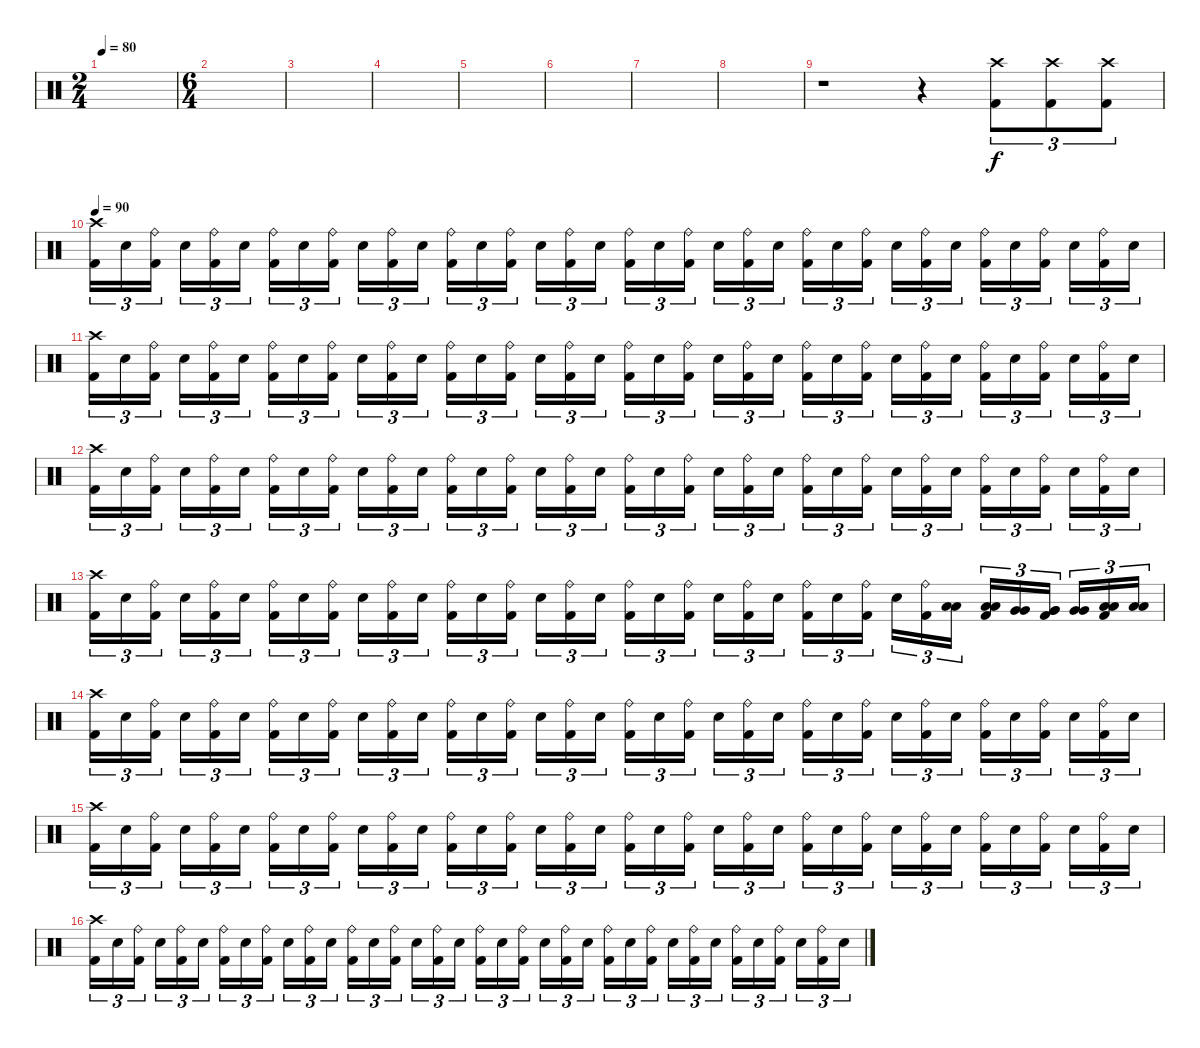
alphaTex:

\track "" {instrument percussion}
\staff {score}
\articulation defaults
\ts (2 4)
\tempo 80
\clef neutral
\ks c
|
\ts (6 4)
|
|
|
|
|
|
|
r.1 r.4 ("Crash high (hit)" "Kick (hit) 2").8{tu (3 2)} ("Crash high (hit)" "Kick (hit) 2").8{tu (3 2)} ("Crash high (hit)" "Kick (hit) 2").8{tu (3 2)} |
\tempo 90
("Crash high (hit)" "Kick (hit) 2").16{tu (3 2)} "Electric Snare (hit)".16{tu (3 2)} ("Ride (bell)" "Kick (hit) 2").16{tu (3 2)} "Electric Snare (hit)".16{tu (3 2)} ("Ride (bell)" "Kick (hit) 2").16{tu (3 2)} "Electric Snare (hit)".16{tu (3 2)} ("Ride (bell)" "Kick (hit) 2").16{tu (3 2)} "Electric Snare (hit)".16{tu (3 2)} ("Ride (bell)" "Kick (hit) 2").16{tu (3 2)} "Electric Snare (hit)".16{tu (3 2)} ("Ride (bell)" "Kick (hit) 2").16{tu (3 2)} "Electric Snare (hit)".16{tu (3 2)} ("Ride (bell)" "Kick (hit) 2").16{tu (3 2)} "Electric Snare (hit)".16{tu (3 2)} ("Ride (bell)" "Kick (hit) 2").16{tu (3 2)} "Electric Snare (hit)".16{tu (3 2)} ("Ride (bell)" "Kick (hit) 2").16{tu (3 2)} "Electric Snare (hit)".16{tu (3 2)} ("Ride (bell)" "Kick (hit) 2").16{tu (3 2)} "Electric Snare (hit)".16{tu (3 2)} ("Ride (bell)" "Kick (hit) 2").16{tu (3 2)} "Electric Snare (hit)".16{tu (3 2)} ("Ride (bell)" "Kick (hit) 2").16{tu (3 2)} "Electric Snare (hit)".16{tu (3 2)} ("Ride (bell)" "Kick (hit) 2").16{tu (3 2)} "Electric Snare (hit)".16{tu (3 2)} ("Ride (bell)" "Kick (hit) 2").16{tu (3 2)} "Electric Snare (hit)".16{tu (3 2)} ("Ride (bell)" "Kick (hit) 2").16{tu (3 2)} "Electric Snare (hit)".16{tu (3 2)} ("Ride (bell)" "Kick (hit) 2").16{tu (3 2)} "Electric Snare (hit)".16{tu (3 2)} ("Ride (bell)" "Kick (hit) 2").16{tu (3 2)} "Electric Snare (hit)".16{tu (3 2)} ("Ride (bell)" "Kick (hit) 2").16{tu (3 2)} "Electric Snare (hit)".16{tu (3 2)} |
("Crash high (hit)" "Kick (hit) 2").16{tu (3 2)} "Electric Snare (hit)".16{tu (3 2)} ("Ride (bell)" "Kick (hit) 2").16{tu (3 2)} "Electric Snare (hit)".16{tu (3 2)} ("Ride (bell)" "Kick (hit) 2").16{tu (3 2)} "Electric Snare (hit)".16{tu (3 2)} ("Ride (bell)" "Kick (hit) 2").16{tu (3 2)} "Electric Snare (hit)".16{tu (3 2)} ("Ride (bell)" "Kick (hit) 2").16{tu (3 2)} "Electric Snare (hit)".16{tu (3 2)} ("Ride (bell)" "Kick (hit) 2").16{tu (3 2)} "Electric Snare (hit)".16{tu (3 2)} ("Ride (bell)" "Kick (hit) 2").16{tu (3 2)} "Electric Snare (hit)".16{tu (3 2)} ("Ride (bell)" "Kick (hit) 2").16{tu (3 2)} "Electric Snare (hit)".16{tu (3 2)} ("Ride (bell)" "Kick (hit) 2").16{tu (3 2)} "Electric Snare (hit)".16{tu (3 2)} ("Ride (bell)" "Kick (hit) 2").16{tu (3 2)} "Electric Snare (hit)".16{tu (3 2)} ("Ride (bell)" "Kick (hit) 2").16{tu (3 2)} "Electric Snare (hit)".16{tu (3 2)} ("Ride (bell)" "Kick (hit) 2").16{tu (3 2)} "Electric Snare (hit)".16{tu (3 2)} ("Ride (bell)" "Kick (hit) 2").16{tu (3 2)} "Electric Snare (hit)".16{tu (3 2)} ("Ride (bell)" "Kick (hit) 2").16{tu (3 2)} "Electric Snare (hit)".16{tu (3 2)} ("Ride (bell)" "Kick (hit) 2").16{tu (3 2)} "Electric Snare (hit)".16{tu (3 2)} ("Ride (bell)" "Kick (hit) 2").16{tu (3 2)} "Electric Snare (hit)".16{tu (3 2)} ("Ride (bell)" "Kick (hit) 2").16{tu (3 2)} "Electric Snare (hit)".16{tu (3 2)} ("Ride (bell)" "Kick (hit) 2").16{tu (3 2)} "Electric Snare (hit)".16{tu (3 2)} |
("Crash high (hit)" "Kick (hit) 2").16{tu (3 2)} "Electric Snare (hit)".16{tu (3 2)} ("Ride (bell)" "Kick (hit) 2").16{tu (3 2)} "Electric Snare (hit)".16{tu (3 2)} ("Ride (bell)" "Kick (hit) 2").16{tu (3 2)} "Electric Snare (hit)".16{tu (3 2)} ("Ride (bell)" "Kick (hit) 2").16{tu (3 2)} "Electric Snare (hit)".16{tu (3 2)} ("Ride (bell)" "Kick (hit) 2").16{tu (3 2)} "Electric Snare (hit)".16{tu (3 2)} ("Ride (bell)" "Kick (hit) 2").16{tu (3 2)} "Electric Snare (hit)".16{tu (3 2)} ("Ride (bell)" "Kick (hit) 2").16{tu (3 2)} "Electric Snare (hit)".16{tu (3 2)} ("Ride (bell)" "Kick (hit) 2").16{tu (3 2)} "Electric Snare (hit)".16{tu (3 2)} ("Ride (bell)" "Kick (hit) 2").16{tu (3 2)} "Electric Snare (hit)".16{tu (3 2)} ("Ride (bell)" "Kick (hit) 2").16{tu (3 2)} "Electric Snare (hit)".16{tu (3 2)} ("Ride (bell)" "Kick (hit) 2").16{tu (3 2)} "Electric Snare (hit)".16{tu (3 2)} ("Ride (bell)" "Kick (hit) 2").16{tu (3 2)} "Electric Snare (hit)".16{tu (3 2)} ("Ride (bell)" "Kick (hit) 2").16{tu (3 2)} "Electric Snare (hit)".16{tu (3 2)} ("Ride (bell)" "Kick (hit) 2").16{tu (3 2)} "Electric Snare (hit)".16{tu (3 2)} ("Ride (bell)" "Kick (hit) 2").16{tu (3 2)} "Electric Snare (hit)".16{tu (3 2)} ("Ride (bell)" "Kick (hit) 2").16{tu (3 2)} "Electric Snare (hit)".16{tu (3 2)} ("Ride (bell)" "Kick (hit) 2").16{tu (3 2)} "Electric Snare (hit)".16{tu (3 2)} ("Ride (bell)" "Kick (hit) 2").16{tu (3 2)} "Electric Snare (hit)".16{tu (3 2)} |
("Crash high (hit)" "Kick (hit) 2").16{tu (3 2)} "Electric Snare (hit)".16{tu (3 2)} ("Ride (bell)" "Kick (hit) 2").16{tu (3 2)} "Electric Snare (hit)".16{tu (3 2)} ("Ride (bell)" "Kick (hit) 2").16{tu (3 2)} "Electric Snare (hit)".16{tu (3 2)} ("Ride (bell)" "Kick (hit) 2").16{tu (3 2)} "Electric Snare (hit)".16{tu (3 2)} ("Ride (bell)" "Kick (hit) 2").16{tu (3 2)} "Electric Snare (hit)".16{tu (3 2)} ("Ride (bell)" "Kick (hit) 2").16{tu (3 2)} "Electric Snare (hit)".16{tu (3 2)} ("Ride (bell)" "Kick (hit) 2").16{tu (3 2)} "Electric Snare (hit)".16{tu (3 2)} ("Ride (bell)" "Kick (hit) 2").16{tu (3 2)} "Electric Snare (hit)".16{tu (3 2)} ("Ride (bell)" "Kick (hit) 2").16{tu (3 2)} "Electric Snare (hit)".16{tu (3 2)} ("Ride (bell)" "Kick (hit) 2").16{tu (3 2)} "Electric Snare (hit)".16{tu (3 2)} ("Ride (bell)" "Kick (hit) 2").16{tu (3 2)} "Electric Snare (hit)".16{tu (3 2)} ("Ride (bell)" "Kick (hit) 2").16{tu (3 2)} "Electric Snare (hit)".16{tu (3 2)} ("Ride (bell)" "Kick (hit) 2").16{tu (3 2)} "Electric Snare (hit)".16{tu (3 2)} ("Ride (bell)" "Kick (hit) 2").16{tu (3 2)} "Electric Snare (hit)".16{tu (3 2)} ("Ride (bell)" "Kick (hit) 2").16{tu (3 2)} ("Low Tom (hit)" "Low Tom (hit)").16{tu (3 2)} ("Low Tom (hit)" "Low Tom (hit)" "Kick (hit) 2").16{tu (3 2)} ("Very Low Tom (hit)" "Very Low Tom (hit)").16{tu (3 2)} ("Very Low Tom (hit)" "Very Low Tom (hit)" "Kick (hit) 2").16{tu (3 2)} ("Very Low Tom (hit)" "Very Low Tom (hit)").16{tu (3 2)} ("Low Floor Tom (hit)" "Low Floor Tom (hit)" "Kick (hit) 2").16{tu (3 2)} ("Low Floor Tom (hit)" "Low Floor Tom (hit)").16{tu (3 2)} |
("Crash high (hit)" "Kick (hit) 2").16{tu (3 2)} "Electric Snare (hit)".16{tu (3 2)} ("Ride (bell)" "Kick (hit) 2").16{tu (3 2)} "Electric Snare (hit)".16{tu (3 2)} ("Ride (bell)" "Kick (hit) 2").16{tu (3 2)} "Electric Snare (hit)".16{tu (3 2)} ("Ride (bell)" "Kick (hit) 2").16{tu (3 2)} "Electric Snare (hit)".16{tu (3 2)} ("Ride (bell)" "Kick (hit) 2").16{tu (3 2)} "Electric Snare (hit)".16{tu (3 2)} ("Ride (bell)" "Kick (hit) 2").16{tu (3 2)} "Electric Snare (hit)".16{tu (3 2)} ("Ride (bell)" "Kick (hit) 2").16{tu (3 2)} "Electric Snare (hit)".16{tu (3 2)} ("Ride (bell)" "Kick (hit) 2").16{tu (3 2)} "Electric Snare (hit)".16{tu (3 2)} ("Ride (bell)" "Kick (hit) 2").16{tu (3 2)} "Electric Snare (hit)".16{tu (3 2)} ("Ride (bell)" "Kick (hit) 2").16{tu (3 2)} "Electric Snare (hit)".16{tu (3 2)} ("Ride (bell)" "Kick (hit) 2").16{tu (3 2)} "Electric Snare (hit)".16{tu (3 2)} ("Ride (bell)" "Kick (hit) 2").16{tu (3 2)} "Electric Snare (hit)".16{tu (3 2)} ("Ride (bell)" "Kick (hit) 2").16{tu (3 2)} "Electric Snare (hit)".16{tu (3 2)} ("Ride (bell)" "Kick (hit) 2").16{tu (3 2)} "Electric Snare (hit)".16{tu (3 2)} ("Ride (bell)" "Kick (hit) 2").16{tu (3 2)} "Electric Snare (hit)".16{tu (3 2)} ("Ride (bell)" "Kick (hit) 2").16{tu (3 2)} "Electric Snare (hit)".16{tu (3 2)} ("Ride (bell)" "Kick (hit) 2").16{tu (3 2)} "Electric Snare (hit)".16{tu (3 2)} ("Ride (bell)" "Kick (hit) 2").16{tu (3 2)} "Electric Snare (hit)".16{tu (3 2)} |
("Crash high (hit)" "Kick (hit) 2").16{tu (3 2)} "Electric Snare (hit)".16{tu (3 2)} ("Ride (bell)" "Kick (hit) 2").16{tu (3 2)} "Electric Snare (hit)".16{tu (3 2)} ("Ride (bell)" "Kick (hit) 2").16{tu (3 2)} "Electric Snare (hit)".16{tu (3 2)} ("Ride (bell)" "Kick (hit) 2").16{tu (3 2)} "Electric Snare (hit)".16{tu (3 2)} ("Ride (bell)" "Kick (hit) 2").16{tu (3 2)} "Electric Snare (hit)".16{tu (3 2)} ("Ride (bell)" "Kick (hit) 2").16{tu (3 2)} "Electric Snare (hit)".16{tu (3 2)} ("Ride (bell)" "Kick (hit) 2").16{tu (3 2)} "Electric Snare (hit)".16{tu (3 2)} ("Ride (bell)" "Kick (hit) 2").16{tu (3 2)} "Electric Snare (hit)".16{tu (3 2)} ("Ride (bell)" "Kick (hit) 2").16{tu (3 2)} "Electric Snare (hit)".16{tu (3 2)} ("Ride (bell)" "Kick (hit) 2").16{tu (3 2)} "Electric Snare (hit)".16{tu (3 2)} ("Ride (bell)" "Kick (hit) 2").16{tu (3 2)} "Electric Snare (hit)".16{tu (3 2)} ("Ride (bell)" "Kick (hit) 2").16{tu (3 2)} "Electric Snare (hit)".16{tu (3 2)} ("Ride (bell)" "Kick (hit) 2").16{tu (3 2)} "Electric Snare (hit)".16{tu (3 2)} ("Ride (bell)" "Kick (hit) 2").16{tu (3 2)} "Electric Snare (hit)".16{tu (3 2)} ("Ride (bell)" "Kick (hit) 2").16{tu (3 2)} "Electric Snare (hit)".16{tu (3 2)} ("Ride (bell)" "Kick (hit) 2").16{tu (3 2)} "Electric Snare (hit)".16{tu (3 2)} ("Ride (bell)" "Kick (hit) 2").16{tu (3 2)} "Electric Snare (hit)".16{tu (3 2)} ("Ride (bell)" "Kick (hit) 2").16{tu (3 2)} "Electric Snare (hit)".16{tu (3 2)} |
("Crash high (hit)" "Kick (hit) 2").16{tu (3 2)} "Electric Snare (hit)".16{tu (3 2)} ("Ride (bell)" "Kick (hit) 2").16{tu (3 2)} "Electric Snare (hit)".16{tu (3 2)} ("Ride (bell)" "Kick (hit) 2").16{tu (3 2)} "Electric Snare (hit)".16{tu (3 2)} ("Ride (bell)" "Kick (hit) 2").16{tu (3 2)} "Electric Snare (hit)".16{tu (3 2)} ("Ride (bell)" "Kick (hit) 2").16{tu (3 2)} "Electric Snare (hit)".16{tu (3 2)} ("Ride (bell)" "Kick (hit) 2").16{tu (3 2)} "Electric Snare (hit)".16{tu (3 2)} ("Ride (bell)" "Kick (hit) 2").16{tu (3 2)} "Electric Snare (hit)".16{tu (3 2)} ("Ride (bell)" "Kick (hit) 2").16{tu (3 2)} "Electric Snare (hit)".16{tu (3 2)} ("Ride (bell)" "Kick (hit) 2").16{tu (3 2)} "Electric Snare (hit)".16{tu (3 2)} ("Ride (bell)" "Kick (hit) 2").16{tu (3 2)} "Electric Snare (hit)".16{tu (3 2)} ("Ride (bell)" "Kick (hit) 2").16{tu (3 2)} "Electric Snare (hit)".16{tu (3 2)} ("Ride (bell)" "Kick (hit) 2").16{tu (3 2)} "Electric Snare (hit)".16{tu (3 2)} ("Ride (bell)" "Kick (hit) 2").16{tu (3 2)} "Electric Snare (hit)".16{tu (3 2)} ("Ride (bell)" "Kick (hit) 2").16{tu (3 2)} "Electric Snare (hit)".16{tu (3 2)} ("Ride (bell)" "Kick (hit) 2").16{tu (3 2)} "Electric Snare (hit)".16{tu (3 2)} ("Ride (bell)" "Kick (hit) 2").16{tu (3 2)} "Electric Snare (hit)".16{tu (3 2)} ("Ride (bell)" "Kick (hit) 2").16{tu (3 2)} "Electric Snare (hit)".16{tu (3 2)} ("Ride (bell)" "Kick (hit) 2").16{tu (3 2)} "Electric Snare (hit)".16{tu (3 2)}
